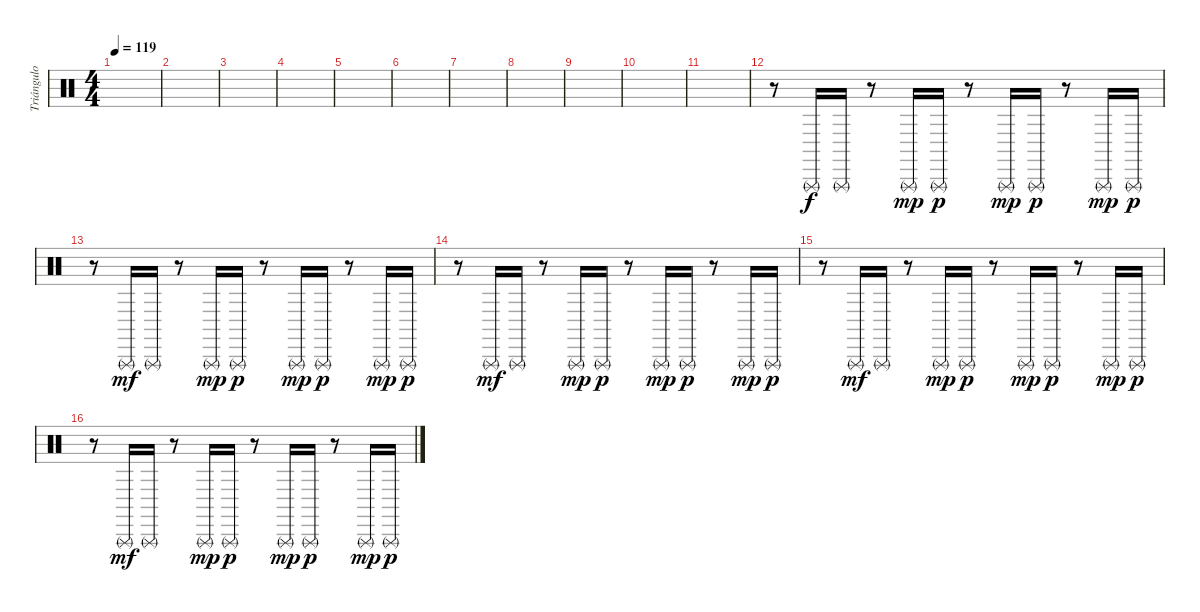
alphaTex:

\track ("Triángulo" "Triángulo") {instrument percussion}
\staff {score}
\articulation defaults
\ts (4 4)
\tempo 119
\clef neutral
\ks c
|
|
|
|
|
|
|
|
|
|
|
r.8 "Triangle (rnute)".16 "Triangle (rnute)".16 r.8 "Triangle (rnute)".16{dy mp} "Triangle (rnute)".16{dy p} r.8 "Triangle (rnute)".16{dy mp} "Triangle (rnute)".16{dy p} r.8 "Triangle (rnute)".16{dy mp} "Triangle (rnute)".16{dy p} |
r.8 "Triangle (rnute)".16{dy mf} "Triangle (rnute)".16 r.8 "Triangle (rnute)".16{dy mp} "Triangle (rnute)".16{dy p} r.8 "Triangle (rnute)".16{dy mp} "Triangle (rnute)".16{dy p} r.8 "Triangle (rnute)".16{dy mp} "Triangle (rnute)".16{dy p} |
r.8 "Triangle (rnute)".16{dy mf} "Triangle (rnute)".16 r.8 "Triangle (rnute)".16{dy mp} "Triangle (rnute)".16{dy p} r.8 "Triangle (rnute)".16{dy mp} "Triangle (rnute)".16{dy p} r.8 "Triangle (rnute)".16{dy mp} "Triangle (rnute)".16{dy p} |
r.8 "Triangle (rnute)".16{dy mf} "Triangle (rnute)".16 r.8 "Triangle (rnute)".16{dy mp} "Triangle (rnute)".16{dy p} r.8 "Triangle (rnute)".16{dy mp} "Triangle (rnute)".16{dy p} r.8 "Triangle (rnute)".16{dy mp} "Triangle (rnute)".16{dy p} |
r.8 "Triangle (rnute)".16{dy mf} "Triangle (rnute)".16 r.8 "Triangle (rnute)".16{dy mp} "Triangle (rnute)".16{dy p} r.8 "Triangle (rnute)".16{dy mp} "Triangle (rnute)".16{dy p} r.8 "Triangle (rnute)".16{dy mp} "Triangle (rnute)".16{dy p}
